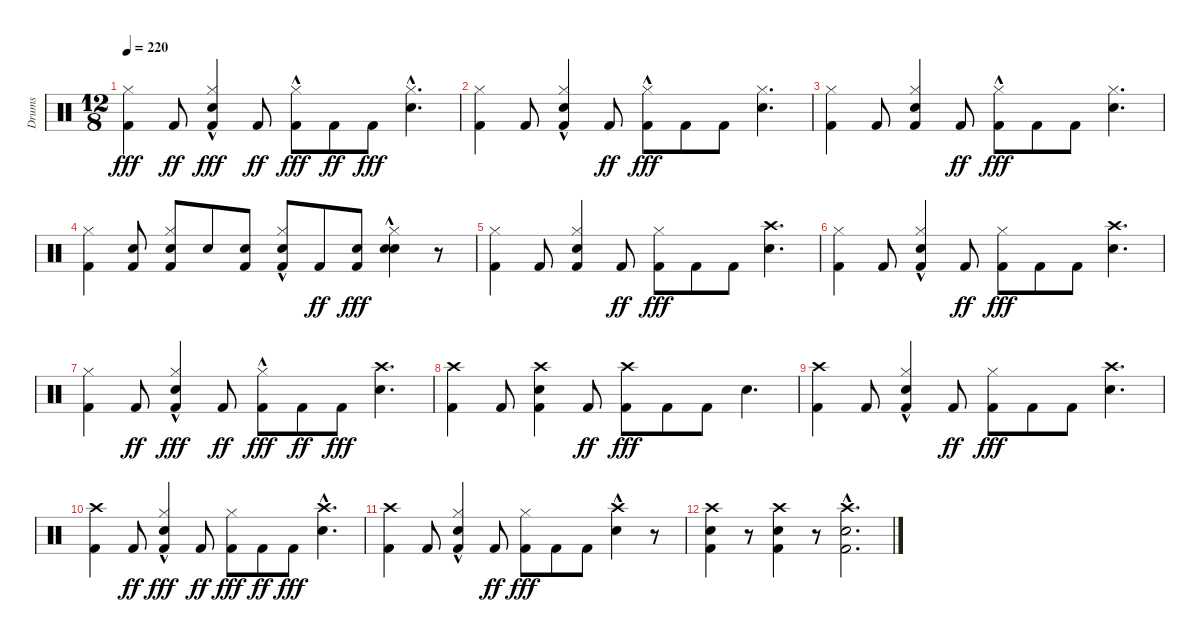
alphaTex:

\track ("Drums" "Drums") {instrument percussion}
\staff {score}
\articulation defaults
\ts (12 8)
\tempo 220
\clef neutral
\ks c
("Kick (hit) 2" "Hi-Hat (closed)").4{dy fff} "Kick (hit) 2".8{dy ff} ("Kick (hit) 2" "Snare (hit) 2" "Hi-Hat (closed)"{hac}).4{dy fff} "Kick (hit) 2".8{dy ff} ("Kick (hit) 2" "Hi-Hat (closed)"{hac}).8{dy fff} "Kick (hit) 2".8{dy ff} "Kick (hit) 2".8{dy fff} ("Snare (hit) 2" "Hi-Hat (closed)"{hac}).4{d} |
("Kick (hit) 2" "Hi-Hat (closed)").4 "Kick (hit) 2".8 ("Kick (hit) 2" "Snare (hit) 2" "Hi-Hat (closed)"{hac}).4 "Kick (hit) 2".8{dy ff} ("Kick (hit) 2" "Hi-Hat (closed)"{hac}).8{dy fff} "Kick (hit) 2".8 "Kick (hit) 2".8 ("Snare (hit) 2" "Hi-Hat (closed)").4{d} |
("Kick (hit) 2" "Hi-Hat (closed)").4 "Kick (hit) 2".8 ("Kick (hit) 2" "Snare (hit) 2" "Hi-Hat (closed)").4 "Kick (hit) 2".8{dy ff} ("Kick (hit) 2" "Hi-Hat (closed)"{hac}).8{dy fff} "Kick (hit) 2".8 "Kick (hit) 2".8 ("Snare (hit) 2" "Hi-Hat (closed)").4{d} |
("Kick (hit) 2" "Hi-Hat (closed)").4 ("Kick (hit) 2" "Snare (hit) 2").8 ("Kick (hit) 2" "Snare (hit) 2" "Hi-Hat (closed)").8 "Snare (hit) 2".8 ("Kick (hit) 2" "Snare (hit) 2").8 ("Kick (hit) 2" "Snare (hit) 2"{hac} "Hi-Hat (closed)").8 "Kick (hit) 2".8{dy ff} ("Kick (hit) 2" "Snare (hit) 2").8{dy fff} ("Snare (hit) 2"{hac} "Snare (hit) 2"{hac} "Hi-Hat (closed)").4 r.8 |
("Kick (hit) 2" "Hi-Hat (closed)").4 "Kick (hit) 2".8 ("Kick (hit) 2" "Snare (hit) 2" "Hi-Hat (closed)").4 "Kick (hit) 2".8{dy ff} ("Kick (hit) 2" "Hi-Hat (closed)").8{dy fff} "Kick (hit) 2".8 "Kick (hit) 2".8 ("Snare (hit) 2" "Crash high (hit)").4{d} |
("Kick (hit) 2" "Hi-Hat (closed)").4 "Kick (hit) 2".8 ("Kick (hit) 2" "Snare (hit) 2" "Hi-Hat (closed)"{hac}).4 "Kick (hit) 2".8{dy ff} ("Kick (hit) 2" "Hi-Hat (closed)").8{dy fff} "Kick (hit) 2".8 "Kick (hit) 2".8 ("Snare (hit) 2" "Crash high (hit)").4{d} |
("Kick (hit) 2" "Hi-Hat (closed)").4 "Kick (hit) 2".8{dy ff} ("Kick (hit) 2" "Snare (hit) 2" "Hi-Hat (closed)"{hac}).4{dy fff} "Kick (hit) 2".8{dy ff} ("Kick (hit) 2" "Hi-Hat (closed)"{hac}).8{dy fff} "Kick (hit) 2".8{dy ff} "Kick (hit) 2".8{dy fff} ("Snare (hit) 2" "Crash high (hit)").4{d} |
("Kick (hit) 2" "Crash high (hit)").4 "Kick (hit) 2".8 ("Kick (hit) 2" "Snare (hit) 2" "Crash high (hit)").4 "Kick (hit) 2".8{dy ff} ("Kick (hit) 2" "Crash high (hit)").8{dy fff} "Kick (hit) 2".8 "Kick (hit) 2".8 "Snare (hit) 2".4{d} |
("Kick (hit) 2" "Crash high (hit)").4 "Kick (hit) 2".8 ("Kick (hit) 2" "Snare (hit) 2" "Hi-Hat (closed)"{hac}).4 "Kick (hit) 2".8{dy ff} ("Kick (hit) 2" "Hi-Hat (closed)").8{dy fff} "Kick (hit) 2".8 "Kick (hit) 2".8 ("Snare (hit) 2" "Crash high (hit)").4{d} |
("Kick (hit) 2" "Crash high (hit)").4 "Kick (hit) 2".8{dy ff} ("Kick (hit) 2" "Snare (hit) 2" "Hi-Hat (closed)"{hac}).4{dy fff} "Kick (hit) 2".8{dy ff} ("Kick (hit) 2" "Hi-Hat (closed)").8{dy fff} "Kick (hit) 2".8{dy ff} "Kick (hit) 2".8{dy fff} ("Snare (hit) 2" "Crash high (hit)"{hac}).4{d} |
("Kick (hit) 2" "Crash high (hit)").4 "Kick (hit) 2".8 ("Kick (hit) 2" "Snare (hit) 2" "Hi-Hat (closed)"{hac}).4 "Kick (hit) 2".8{dy ff} ("Kick (hit) 2" "Hi-Hat (closed)").8{dy fff} "Kick (hit) 2".8 "Kick (hit) 2".8 ("Snare (hit) 2" "Crash high (hit)"{hac}).4 r.8 |
("Kick (hit) 2" "Snare (hit) 2" "Crash high (hit)").4 r.8 ("Kick (hit) 2" "Snare (hit) 2" "Crash high (hit)").4 r.8 ("Kick (hit) 2" "Snare (hit) 2"{hac} "Crash high (hit)"{hac}).2{d}
